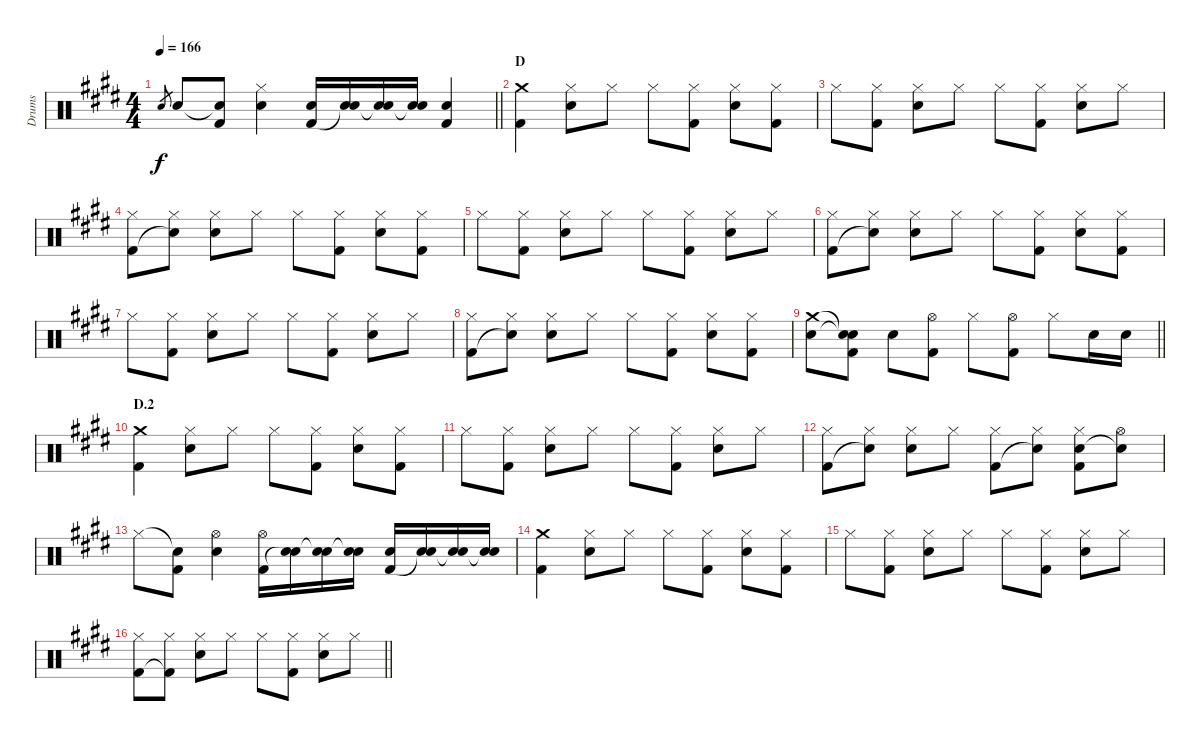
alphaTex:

\track ("Drums" "Drums") {instrument percussion}
\staff {score}
\articulation defaults
\ts (4 4)
\tempo 166
\clef neutral
\barLineRight lightlight
\ks e "Snare (hit) 2".8{gr dy f} "Snare (hit) 2".8
("Snare (hit)"{t} "Kick (hit) 2").8 ("Hi-Hat (closed)" "Snare (hit) 2").4 ("Snare (hit) 2" "Kick (hit) 2").16 ("Snare (hit) 2" "Snare (hit)"{t}).16 ("Snare (hit) 2" "Snare (hit)"{t}).16 ("Snare (hit) 2" "Snare (hit)"{t}).16 ("Snare (hit) 2" "Kick (hit) 2").4 |
\section ("" "D")
("Crash medium (hit)" "Kick (hit) 2").4 ("Hi-Hat (closed)" "Snare (hit) 2").8 "Hi-Hat (closed)".8 "Hi-Hat (closed)".8 ("Hi-Hat (closed)" "Kick (hit) 2").8 ("Hi-Hat (closed)" "Snare (hit) 2").8 ("Hi-Hat (closed)" "Kick (hit) 2").8 |
"Hi-Hat (closed)".8 ("Hi-Hat (closed)" "Kick (hit) 2").8 ("Hi-Hat (closed)" "Snare (hit) 2").8 "Hi-Hat (closed)".8 "Hi-Hat (closed)".8 ("Hi-Hat (closed)" "Kick (hit) 2").8 ("Hi-Hat (closed)" "Snare (hit) 2").8 "Hi-Hat (closed)".8 |
("Hi-Hat (closed)" "Kick (hit) 2").8 ("Hi-Hat (closed)" "Snare (hit)"{t}).8 ("Hi-Hat (closed)" "Snare (hit) 2").8 "Hi-Hat (closed)".8 "Hi-Hat (closed)".8 ("Hi-Hat (closed)" "Kick (hit) 2").8 ("Hi-Hat (closed)" "Snare (hit) 2").8 ("Hi-Hat (closed)" "Kick (hit) 2").8 |
"Hi-Hat (closed)".8 ("Hi-Hat (closed)" "Kick (hit) 2").8 ("Hi-Hat (closed)" "Snare (hit) 2").8 "Hi-Hat (closed)".8 "Hi-Hat (closed)".8 ("Hi-Hat (closed)" "Kick (hit) 2").8 ("Hi-Hat (closed)" "Snare (hit) 2").8 "Hi-Hat (closed)".8 |
("Hi-Hat (closed)" "Kick (hit) 2").8 ("Hi-Hat (closed)" "Snare (hit)"{t}).8 ("Hi-Hat (closed)" "Snare (hit) 2").8 "Hi-Hat (closed)".8 "Hi-Hat (closed)".8 ("Hi-Hat (closed)" "Kick (hit) 2").8 ("Hi-Hat (closed)" "Snare (hit) 2").8 ("Hi-Hat (closed)" "Kick (hit) 2").8 |
"Hi-Hat (closed)".8 ("Hi-Hat (closed)" "Kick (hit) 2").8 ("Hi-Hat (closed)" "Snare (hit) 2").8 "Hi-Hat (closed)".8 "Hi-Hat (closed)".8 ("Hi-Hat (closed)" "Kick (hit) 2").8 ("Hi-Hat (closed)" "Snare (hit) 2").8 "Hi-Hat (closed)".8 |
("Hi-Hat (closed)" "Kick (hit) 2").8 ("Hi-Hat (closed)" "Snare (hit)"{t}).8 ("Hi-Hat (closed)" "Snare (hit) 2").8 "Hi-Hat (closed)".8 "Hi-Hat (closed)".8 ("Hi-Hat (closed)" "Kick (hit) 2").8 ("Hi-Hat (closed)" "Snare (hit) 2").8 ("Hi-Hat (closed)" "Kick (hit) 2").8 |
\barLineRight lightlight
("Crash medium (hit)" "Snare (hit) 2").8 ("Snare (hit)"{t} "Snare (hit)"{t} "Kick (hit) 2").8 "Snare (hit) 2".8 ("Hi-Hat (open)" "Kick (hit) 2").8 "Hi-Hat (closed)".8 ("Hi-Hat (open)" "Kick (hit) 2").8 "Hi-Hat (closed)".8 "Snare (hit) 2".16 "Snare (hit) 2".16 |
\section ("" "D.2")
("Crash medium (hit)" "Kick (hit) 2").4 ("Hi-Hat (closed)" "Snare (hit) 2").8 "Hi-Hat (closed)".8 "Hi-Hat (closed)".8 ("Hi-Hat (closed)" "Kick (hit) 2").8 ("Hi-Hat (closed)" "Snare (hit) 2").8 ("Hi-Hat (closed)" "Kick (hit) 2").8 |
"Hi-Hat (closed)".8 ("Hi-Hat (closed)" "Kick (hit) 2").8 ("Hi-Hat (closed)" "Snare (hit) 2").8 "Hi-Hat (closed)".8 "Hi-Hat (closed)".8 ("Hi-Hat (closed)" "Kick (hit) 2").8 ("Hi-Hat (closed)" "Snare (hit) 2").8 "Hi-Hat (closed)".8 |
("Hi-Hat (closed)" "Kick (hit) 2").8 ("Hi-Hat (closed)" "Snare (hit)"{t}).8 ("Hi-Hat (closed)" "Snare (hit) 2").8 "Hi-Hat (closed)".8 ("Hi-Hat (closed)" "Kick (hit) 2").8 ("Hi-Hat (closed)" "Snare (hit)"{t}).8 ("Hi-Hat (closed)" "Snare (hit) 2" "Kick (hit) 2").8 ("Hi-Hat (open)" "Snare (hit)"{t}).8 |
"Hi-Hat (closed)".8 ("Snare (hit)"{t} "Kick (hit) 2").8 ("Hi-Hat (open)" "Snare (hit) 2").4 ("Hi-Hat (open)" "Kick (hit) 2").16 ("Snare (hit) 2" "Snare (hit)"{t}).16 ("Snare (hit) 2" "Snare (hit)"{t}).16 ("Snare (hit) 2" "Snare (hit)"{t}).16 ("Snare (hit) 2" "Kick (hit) 2").16 ("Snare (hit) 2" "Snare (hit)"{t}).16 ("Snare (hit) 2" "Snare (hit)"{t}).16 ("Snare (hit) 2" "Snare (hit)"{t}).16 |
("Crash medium (hit)" "Kick (hit) 2").4 ("Hi-Hat (closed)" "Snare (hit) 2").8 "Hi-Hat (closed)".8 "Hi-Hat (closed)".8 ("Hi-Hat (closed)" "Kick (hit) 2").8 ("Hi-Hat (closed)" "Snare (hit) 2").8 ("Hi-Hat (closed)" "Kick (hit) 2").8 |
"Hi-Hat (closed)".8 ("Hi-Hat (closed)" "Kick (hit) 2").8 ("Hi-Hat (closed)" "Snare (hit) 2").8 "Hi-Hat (closed)".8 "Hi-Hat (closed)".8 ("Hi-Hat (closed)" "Kick (hit) 2").8 ("Hi-Hat (closed)" "Snare (hit) 2").8 "Hi-Hat (closed)".8 |
\barLineRight lightlight
("Hi-Hat (closed)" "Kick (hit) 2").8 ("Hi-Hat (closed)" "Kick (hit) 2"{t}).8 ("Hi-Hat (closed)" "Snare (hit) 2").8 "Hi-Hat (closed)".8 "Hi-Hat (closed)".8 ("Hi-Hat (closed)" "Kick (hit) 2").8 ("Hi-Hat (closed)" "Snare (hit) 2").8 "Hi-Hat (closed)".8
